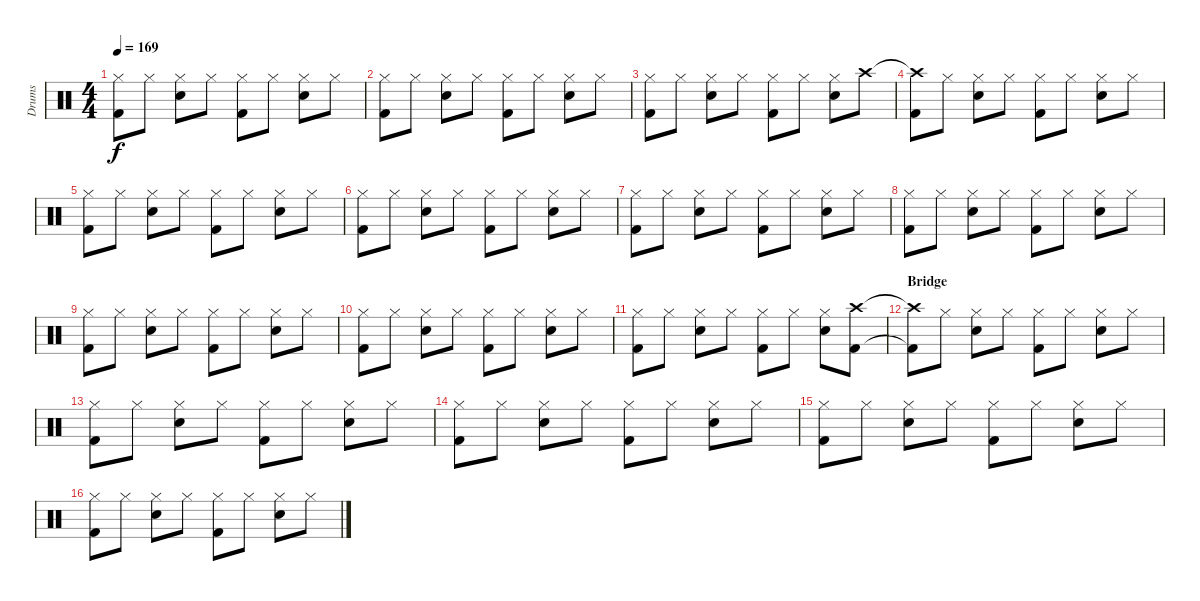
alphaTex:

\track ("Drums" "Drums") {instrument percussion}
\staff {score}
\articulation defaults
\ts (4 4)
\tempo 169
\clef neutral
\ks c
("Hi-Hat (closed)" "Kick (hit) 2").8{dy f} "Hi-Hat (closed)".8 ("Hi-Hat (closed)" "Snare (hit) 2").8 "Hi-Hat (closed)".8 ("Hi-Hat (closed)" "Kick (hit) 2").8 "Hi-Hat (closed)".8 ("Hi-Hat (closed)" "Snare (hit) 2").8 "Hi-Hat (closed)".8 |
("Hi-Hat (closed)" "Kick (hit) 2").8 "Hi-Hat (closed)".8 ("Hi-Hat (closed)" "Snare (hit) 2").8 "Hi-Hat (closed)".8 ("Hi-Hat (closed)" "Kick (hit) 2").8 "Hi-Hat (closed)".8 ("Hi-Hat (closed)" "Snare (hit) 2").8 "Hi-Hat (closed)".8 |
("Hi-Hat (closed)" "Kick (hit) 2").8 "Hi-Hat (closed)".8 ("Hi-Hat (closed)" "Snare (hit) 2").8 "Hi-Hat (closed)".8 ("Hi-Hat (closed)" "Kick (hit) 2").8 "Hi-Hat (closed)".8 ("Hi-Hat (closed)" "Snare (hit) 2").8 "Crash high (hit)".8 |
("Crash high (hit)"{t} "Kick (hit) 2").8 "Hi-Hat (closed)".8 ("Hi-Hat (closed)" "Snare (hit) 2").8 "Hi-Hat (closed)".8 ("Hi-Hat (closed)" "Kick (hit) 2").8 "Hi-Hat (closed)".8 ("Hi-Hat (closed)" "Snare (hit) 2").8 "Hi-Hat (closed)".8 |
("Hi-Hat (closed)" "Kick (hit) 2").8 "Hi-Hat (closed)".8 ("Hi-Hat (closed)" "Snare (hit) 2").8 "Hi-Hat (closed)".8 ("Hi-Hat (closed)" "Kick (hit) 2").8 "Hi-Hat (closed)".8 ("Hi-Hat (closed)" "Snare (hit) 2").8 "Hi-Hat (closed)".8 |
("Hi-Hat (closed)" "Kick (hit) 2").8 "Hi-Hat (closed)".8 ("Hi-Hat (closed)" "Snare (hit) 2").8 "Hi-Hat (closed)".8 ("Hi-Hat (closed)" "Kick (hit) 2").8 "Hi-Hat (closed)".8 ("Hi-Hat (closed)" "Snare (hit) 2").8 "Hi-Hat (closed)".8 |
("Hi-Hat (closed)" "Kick (hit) 2").8 "Hi-Hat (closed)".8 ("Hi-Hat (closed)" "Snare (hit) 2").8 "Hi-Hat (closed)".8 ("Hi-Hat (closed)" "Kick (hit) 2").8 "Hi-Hat (closed)".8 ("Hi-Hat (closed)" "Snare (hit) 2").8 "Hi-Hat (closed)".8 |
("Hi-Hat (closed)" "Kick (hit) 2").8 "Hi-Hat (closed)".8 ("Hi-Hat (closed)" "Snare (hit) 2").8 "Hi-Hat (closed)".8 ("Hi-Hat (closed)" "Kick (hit) 2").8 "Hi-Hat (closed)".8 ("Hi-Hat (closed)" "Snare (hit) 2").8 "Hi-Hat (closed)".8 |
("Hi-Hat (closed)" "Kick (hit) 2").8 "Hi-Hat (closed)".8 ("Hi-Hat (closed)" "Snare (hit) 2").8 "Hi-Hat (closed)".8 ("Hi-Hat (closed)" "Kick (hit) 2").8 "Hi-Hat (closed)".8 ("Hi-Hat (closed)" "Snare (hit) 2").8 "Hi-Hat (closed)".8 |
("Hi-Hat (closed)" "Kick (hit) 2").8 "Hi-Hat (closed)".8 ("Hi-Hat (closed)" "Snare (hit) 2").8 "Hi-Hat (closed)".8 ("Hi-Hat (closed)" "Kick (hit) 2").8 "Hi-Hat (closed)".8 ("Hi-Hat (closed)" "Snare (hit) 2").8 "Hi-Hat (closed)".8 |
("Hi-Hat (closed)" "Kick (hit) 2").8 "Hi-Hat (closed)".8 ("Hi-Hat (closed)" "Snare (hit) 2").8 "Hi-Hat (closed)".8 ("Hi-Hat (closed)" "Kick (hit) 2").8 "Hi-Hat (closed)".8 ("Hi-Hat (closed)" "Snare (hit) 2").8 ("Crash high (hit)" "Kick (hit) 2").8 |
\section ("" "Bridge")
("Crash high (hit)"{t} "Kick (hit) 2"{t}).8 "Hi-Hat (closed)".8 ("Hi-Hat (closed)" "Snare (hit) 2").8 "Hi-Hat (closed)".8 ("Hi-Hat (closed)" "Kick (hit) 2").8 "Hi-Hat (closed)".8 ("Hi-Hat (closed)" "Snare (hit) 2").8 "Hi-Hat (closed)".8 |
("Hi-Hat (closed)" "Kick (hit) 2").8 "Hi-Hat (closed)".8 ("Hi-Hat (closed)" "Snare (hit) 2").8 "Hi-Hat (closed)".8 ("Hi-Hat (closed)" "Kick (hit) 2").8 "Hi-Hat (closed)".8 ("Hi-Hat (closed)" "Snare (hit) 2").8 "Hi-Hat (closed)".8 |
("Hi-Hat (closed)" "Kick (hit) 2").8 "Hi-Hat (closed)".8 ("Hi-Hat (closed)" "Snare (hit) 2").8 "Hi-Hat (closed)".8 ("Hi-Hat (closed)" "Kick (hit) 2").8 "Hi-Hat (closed)".8 ("Hi-Hat (closed)" "Snare (hit) 2").8 "Hi-Hat (closed)".8 |
("Hi-Hat (closed)" "Kick (hit) 2").8 "Hi-Hat (closed)".8 ("Hi-Hat (closed)" "Snare (hit) 2").8 "Hi-Hat (closed)".8 ("Hi-Hat (closed)" "Kick (hit) 2").8 "Hi-Hat (closed)".8 ("Hi-Hat (closed)" "Snare (hit) 2").8 "Hi-Hat (closed)".8 |
("Hi-Hat (closed)" "Kick (hit) 2").8 "Hi-Hat (closed)".8 ("Hi-Hat (closed)" "Snare (hit) 2").8 "Hi-Hat (closed)".8 ("Hi-Hat (closed)" "Kick (hit) 2").8 "Hi-Hat (closed)".8 ("Hi-Hat (closed)" "Snare (hit) 2").8 "Hi-Hat (closed)".8
